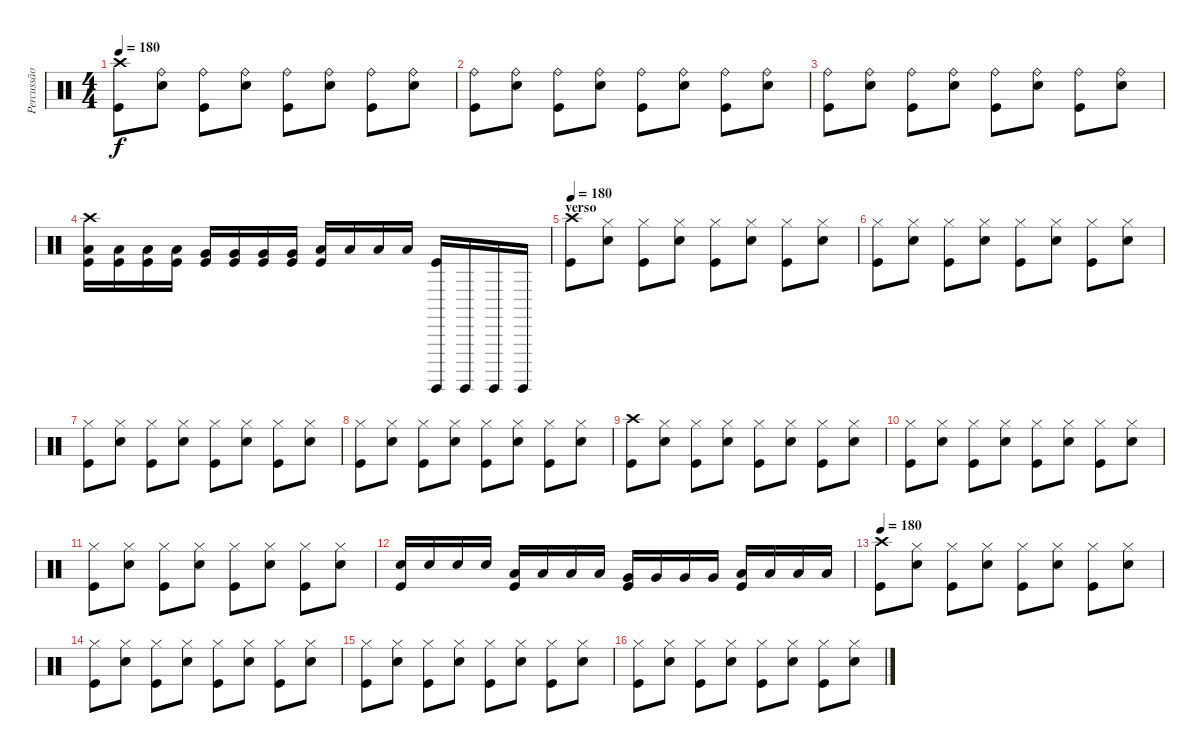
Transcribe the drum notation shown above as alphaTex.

\track ("Percussão" "Percussão") {instrument percussion}
\staff {score}
\articulation defaults
\ts (4 4)
\tempo 180
\clef neutral
\ks c
("Crash high (hit)" "Kick (hit)").8{dy f} ("Ride (bell)" "Snare (hit) 2").8 ("Ride (bell)" "Kick (hit)").8 ("Ride (bell)" "Snare (hit) 2").8 ("Ride (bell)" "Kick (hit)").8 ("Ride (bell)" "Snare (hit) 2").8 ("Ride (bell)" "Kick (hit)").8 ("Ride (bell)" "Snare (hit) 2").8 |
("Ride (bell)" "Kick (hit)").8 ("Ride (bell)" "Snare (hit) 2").8 ("Ride (bell)" "Kick (hit)").8 ("Ride (bell)" "Snare (hit) 2").8 ("Ride (bell)" "Kick (hit)").8 ("Ride (bell)" "Snare (hit) 2").8 ("Ride (bell)" "Kick (hit)").8 ("Ride (bell)" "Snare (hit) 2").8 |
("Ride (bell)" "Kick (hit)").8 ("Ride (bell)" "Snare (hit) 2").8 ("Ride (bell)" "Kick (hit)").8 ("Ride (bell)" "Snare (hit) 2").8 ("Ride (bell)" "Kick (hit)").8 ("Ride (bell)" "Snare (hit) 2").8 ("Ride (bell)" "Kick (hit)").8 ("Ride (bell)" "Snare (hit) 2").8 |
("Crash high (hit)" "Low Tom (hit)" "Kick (hit)").16 ("Low Tom (hit)" "Kick (hit)").16 ("Low Tom (hit)" "Kick (hit)").16 ("Low Tom (hit)" "Kick (hit)").16 ("Very Low Tom (hit)" "Kick (hit)").16 ("Very Low Tom (hit)" "Kick (hit)").16 ("Very Low Tom (hit)" "Kick (hit)").16 ("Very Low Tom (hit)" "Kick (hit)").16 ("Low Floor Tom (hit)" "Kick (hit)").16 "Low Floor Tom (hit)".16 "Low Floor Tom (hit)".16 "Low Floor Tom (hit)".16 ("Surdo (hit)" "Kick (hit)").16 "Surdo (hit)".16 "Surdo (hit)".16 "Surdo (hit)".16 |
\section ("" "verso")
\tempo 180
("Crash high (hit)" "Kick (hit)").8 ("Hi-Hat (closed)" "Snare (hit) 2").8 ("Hi-Hat (closed)" "Kick (hit)").8 ("Hi-Hat (closed)" "Snare (hit) 2").8 ("Hi-Hat (closed)" "Kick (hit)").8 ("Hi-Hat (closed)" "Snare (hit) 2").8 ("Hi-Hat (closed)" "Kick (hit)").8 ("Hi-Hat (closed)" "Snare (hit) 2").8 |
("Hi-Hat (closed)" "Kick (hit)").8 ("Hi-Hat (closed)" "Snare (hit) 2").8 ("Hi-Hat (closed)" "Kick (hit)").8 ("Hi-Hat (closed)" "Snare (hit) 2").8 ("Hi-Hat (closed)" "Kick (hit)").8 ("Hi-Hat (closed)" "Snare (hit) 2").8 ("Hi-Hat (closed)" "Kick (hit)").8 ("Hi-Hat (closed)" "Snare (hit) 2").8 |
("Hi-Hat (closed)" "Kick (hit)").8 ("Hi-Hat (closed)" "Snare (hit) 2").8 ("Hi-Hat (closed)" "Kick (hit)").8 ("Hi-Hat (closed)" "Snare (hit) 2").8 ("Hi-Hat (closed)" "Kick (hit)").8 ("Hi-Hat (closed)" "Snare (hit) 2").8 ("Hi-Hat (closed)" "Kick (hit)").8 ("Hi-Hat (closed)" "Snare (hit) 2").8 |
("Hi-Hat (closed)" "Kick (hit)").8 ("Hi-Hat (closed)" "Snare (hit) 2").8 ("Hi-Hat (closed)" "Kick (hit)").8 ("Hi-Hat (closed)" "Snare (hit) 2").8 ("Hi-Hat (closed)" "Kick (hit)").8 ("Hi-Hat (closed)" "Snare (hit) 2").8 ("Hi-Hat (closed)" "Kick (hit)").8 ("Hi-Hat (closed)" "Snare (hit) 2").8 |
("Crash high (hit)" "Kick (hit)").8 ("Hi-Hat (closed)" "Snare (hit) 2").8 ("Hi-Hat (closed)" "Kick (hit)").8 ("Hi-Hat (closed)" "Snare (hit) 2").8 ("Hi-Hat (closed)" "Kick (hit)").8 ("Hi-Hat (closed)" "Snare (hit) 2").8 ("Hi-Hat (closed)" "Kick (hit)").8 ("Hi-Hat (closed)" "Snare (hit) 2").8 |
("Hi-Hat (closed)" "Kick (hit)").8 ("Hi-Hat (closed)" "Snare (hit) 2").8 ("Hi-Hat (closed)" "Kick (hit)").8 ("Hi-Hat (closed)" "Snare (hit) 2").8 ("Hi-Hat (closed)" "Kick (hit)").8 ("Hi-Hat (closed)" "Snare (hit) 2").8 ("Hi-Hat (closed)" "Kick (hit)").8 ("Hi-Hat (closed)" "Snare (hit) 2").8 |
("Hi-Hat (closed)" "Kick (hit)").8 ("Hi-Hat (closed)" "Snare (hit) 2").8 ("Hi-Hat (closed)" "Kick (hit)").8 ("Hi-Hat (closed)" "Snare (hit) 2").8 ("Hi-Hat (closed)" "Kick (hit)").8 ("Hi-Hat (closed)" "Snare (hit) 2").8 ("Hi-Hat (closed)" "Kick (hit)").8 ("Hi-Hat (closed)" "Snare (hit) 2").8 |
("Snare (hit) 2" "Kick (hit)").16 "Snare (hit) 2".16 "Snare (hit) 2".16 "Snare (hit) 2".16 ("Low Tom (hit)" "Kick (hit)").16 "Low Tom (hit)".16 "Low Tom (hit)".16 "Low Tom (hit)".16 ("Very Low Tom (hit)" "Kick (hit)").16 "Very Low Tom (hit)".16 "Very Low Tom (hit)".16 "Very Low Tom (hit)".16 ("Low Floor Tom (hit)" "Kick (hit)").16 "Low Floor Tom (hit)".16 "Low Floor Tom (hit)".16 "Low Floor Tom (hit)".16 |
\tempo 180
("Crash high (hit)" "Kick (hit)").8 ("Hi-Hat (closed)" "Snare (hit) 2").8 ("Hi-Hat (closed)" "Kick (hit)").8 ("Hi-Hat (closed)" "Snare (hit) 2").8 ("Hi-Hat (closed)" "Kick (hit)").8 ("Hi-Hat (closed)" "Snare (hit) 2").8 ("Hi-Hat (closed)" "Kick (hit)").8 ("Hi-Hat (closed)" "Snare (hit) 2").8 |
("Hi-Hat (closed)" "Kick (hit)").8 ("Hi-Hat (closed)" "Snare (hit) 2").8 ("Hi-Hat (closed)" "Kick (hit)").8 ("Hi-Hat (closed)" "Snare (hit) 2").8 ("Hi-Hat (closed)" "Kick (hit)").8 ("Hi-Hat (closed)" "Snare (hit) 2").8 ("Hi-Hat (closed)" "Kick (hit)").8 ("Hi-Hat (closed)" "Snare (hit) 2").8 |
("Hi-Hat (closed)" "Kick (hit)").8 ("Hi-Hat (closed)" "Snare (hit) 2").8 ("Hi-Hat (closed)" "Kick (hit)").8 ("Hi-Hat (closed)" "Snare (hit) 2").8 ("Hi-Hat (closed)" "Kick (hit)").8 ("Hi-Hat (closed)" "Snare (hit) 2").8 ("Hi-Hat (closed)" "Kick (hit)").8 ("Hi-Hat (closed)" "Snare (hit) 2").8 |
("Hi-Hat (closed)" "Kick (hit)").8 ("Hi-Hat (closed)" "Snare (hit) 2").8 ("Hi-Hat (closed)" "Kick (hit)").8 ("Hi-Hat (closed)" "Snare (hit) 2").8 ("Hi-Hat (closed)" "Kick (hit)").8 ("Hi-Hat (closed)" "Snare (hit) 2").8 ("Hi-Hat (closed)" "Kick (hit)").8 ("Hi-Hat (closed)" "Snare (hit) 2").8
